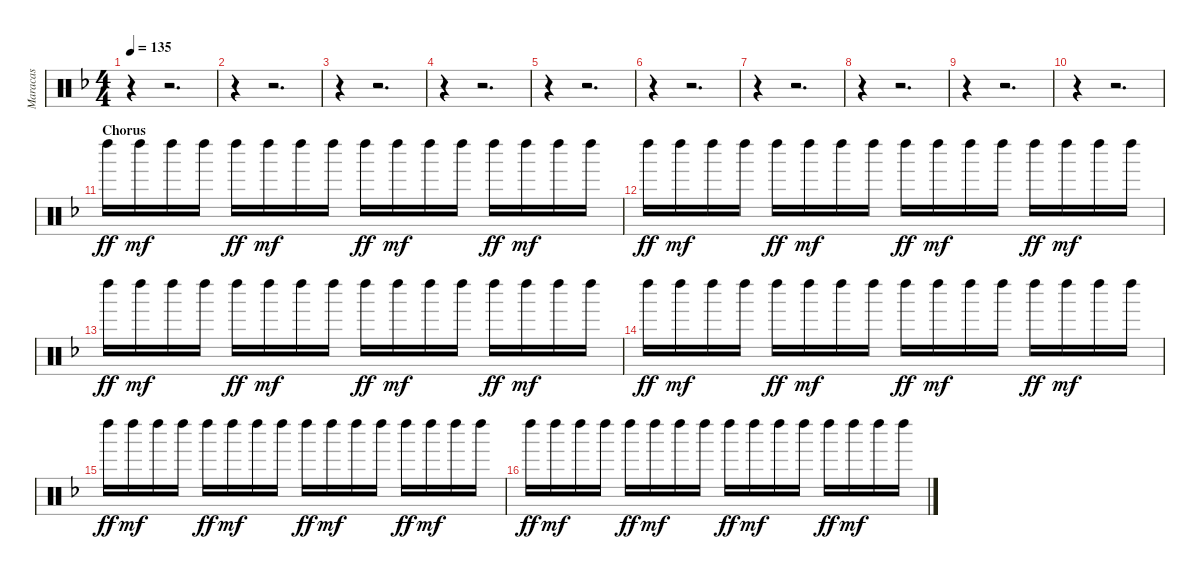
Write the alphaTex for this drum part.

\track ("Maracas" "Maracas") {instrument percussion}
\staff {score}
\articulation defaults
\ts (4 4)
\tempo 135
\clef neutral
\ks f
r.4{dy mf} r.2{d} |
r.4 r.2{d} |
r.4 r.2{d} |
r.4 r.2{d} |
r.4 r.2{d} |
r.4 r.2{d} |
r.4 r.2{d} |
r.4 r.2{d} |
r.4 r.2{d} |
r.4 r.2{d} |
\section ("" "Chorus")
"Left Maraca (hit)".16{dy ff} "Left Maraca (hit)".16{dy mf} "Left Maraca (hit)".16 "Left Maraca (hit)".16 "Left Maraca (hit)".16{dy ff} "Left Maraca (hit)".16{dy mf} "Left Maraca (hit)".16 "Left Maraca (hit)".16 "Left Maraca (hit)".16{dy ff} "Left Maraca (hit)".16{dy mf} "Left Maraca (hit)".16 "Left Maraca (hit)".16 "Left Maraca (hit)".16{dy ff} "Left Maraca (hit)".16{dy mf} "Left Maraca (hit)".16 "Left Maraca (hit)".16 |
"Left Maraca (hit)".16{dy ff} "Left Maraca (hit)".16{dy mf} "Left Maraca (hit)".16 "Left Maraca (hit)".16 "Left Maraca (hit)".16{dy ff} "Left Maraca (hit)".16{dy mf} "Left Maraca (hit)".16 "Left Maraca (hit)".16 "Left Maraca (hit)".16{dy ff} "Left Maraca (hit)".16{dy mf} "Left Maraca (hit)".16 "Left Maraca (hit)".16 "Left Maraca (hit)".16{dy ff} "Left Maraca (hit)".16{dy mf} "Left Maraca (hit)".16 "Left Maraca (hit)".16 |
"Left Maraca (hit)".16{dy ff} "Left Maraca (hit)".16{dy mf} "Left Maraca (hit)".16 "Left Maraca (hit)".16 "Left Maraca (hit)".16{dy ff} "Left Maraca (hit)".16{dy mf} "Left Maraca (hit)".16 "Left Maraca (hit)".16 "Left Maraca (hit)".16{dy ff} "Left Maraca (hit)".16{dy mf} "Left Maraca (hit)".16 "Left Maraca (hit)".16 "Left Maraca (hit)".16{dy ff} "Left Maraca (hit)".16{dy mf} "Left Maraca (hit)".16 "Left Maraca (hit)".16 |
"Left Maraca (hit)".16{dy ff} "Left Maraca (hit)".16{dy mf} "Left Maraca (hit)".16 "Left Maraca (hit)".16 "Left Maraca (hit)".16{dy ff} "Left Maraca (hit)".16{dy mf} "Left Maraca (hit)".16 "Left Maraca (hit)".16 "Left Maraca (hit)".16{dy ff} "Left Maraca (hit)".16{dy mf} "Left Maraca (hit)".16 "Left Maraca (hit)".16 "Left Maraca (hit)".16{dy ff} "Left Maraca (hit)".16{dy mf} "Left Maraca (hit)".16 "Left Maraca (hit)".16 |
"Left Maraca (hit)".16{dy ff} "Left Maraca (hit)".16{dy mf} "Left Maraca (hit)".16 "Left Maraca (hit)".16 "Left Maraca (hit)".16{dy ff} "Left Maraca (hit)".16{dy mf} "Left Maraca (hit)".16 "Left Maraca (hit)".16 "Left Maraca (hit)".16{dy ff} "Left Maraca (hit)".16{dy mf} "Left Maraca (hit)".16 "Left Maraca (hit)".16 "Left Maraca (hit)".16{dy ff} "Left Maraca (hit)".16{dy mf} "Left Maraca (hit)".16 "Left Maraca (hit)".16 |
"Left Maraca (hit)".16{dy ff} "Left Maraca (hit)".16{dy mf} "Left Maraca (hit)".16 "Left Maraca (hit)".16 "Left Maraca (hit)".16{dy ff} "Left Maraca (hit)".16{dy mf} "Left Maraca (hit)".16 "Left Maraca (hit)".16 "Left Maraca (hit)".16{dy ff} "Left Maraca (hit)".16{dy mf} "Left Maraca (hit)".16 "Left Maraca (hit)".16 "Left Maraca (hit)".16{dy ff} "Left Maraca (hit)".16{dy mf} "Left Maraca (hit)".16 "Left Maraca (hit)".16
